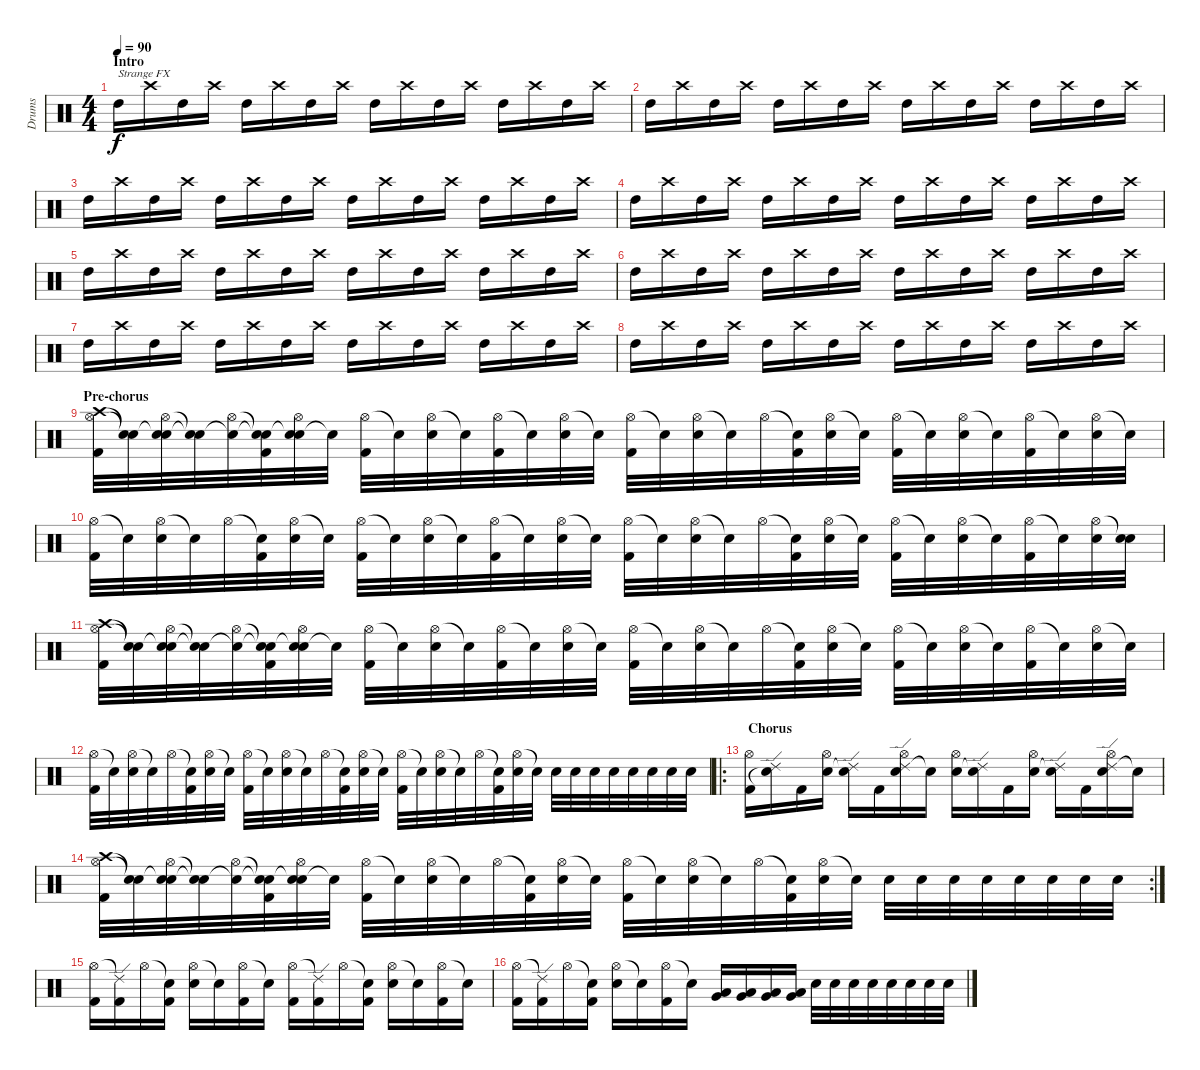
\track ("Drums" "Drums") {instrument percussion}
\staff {score}
\articulation defaults
\ts (4 4)
\section ("" "Intro")
\tempo 90
\clef neutral
\ks c "High Tom (hit)".16{txt "Strange FX" dy f} "Crash high (hit)".16 "High Tom (hit)".16 "Crash high (hit)".16 "High Tom (hit)".16 "Crash high (hit)".16 "High Tom (hit)".16 "Crash high (hit)".16 "High Tom (hit)".16 "Crash high (hit)".16 "High Tom (hit)".16 "Crash high (hit)".16 "High Tom (hit)".16 "Crash high (hit)".16 "High Tom (hit)".16 "Crash high (hit)".16
|
"High Tom (hit)".16 "Crash high (hit)".16 "High Tom (hit)".16 "Crash high (hit)".16 "High Tom (hit)".16 "Crash high (hit)".16 "High Tom (hit)".16 "Crash high (hit)".16 "High Tom (hit)".16 "Crash high (hit)".16 "High Tom (hit)".16 "Crash high (hit)".16 "High Tom (hit)".16 "Crash high (hit)".16 "High Tom (hit)".16 "Crash high (hit)".16 |
"High Tom (hit)".16 "Crash high (hit)".16 "High Tom (hit)".16 "Crash high (hit)".16 "High Tom (hit)".16 "Crash high (hit)".16 "High Tom (hit)".16 "Crash high (hit)".16 "High Tom (hit)".16 "Crash high (hit)".16 "High Tom (hit)".16 "Crash high (hit)".16 "High Tom (hit)".16 "Crash high (hit)".16 "High Tom (hit)".16 "Crash high (hit)".16 |
"High Tom (hit)".16 "Crash high (hit)".16 "High Tom (hit)".16 "Crash high (hit)".16 "High Tom (hit)".16 "Crash high (hit)".16 "High Tom (hit)".16 "Crash high (hit)".16 "High Tom (hit)".16 "Crash high (hit)".16 "High Tom (hit)".16 "Crash high (hit)".16 "High Tom (hit)".16 "Crash high (hit)".16 "High Tom (hit)".16 "Crash high (hit)".16 |
"High Tom (hit)".16 "Crash high (hit)".16 "High Tom (hit)".16 "Crash high (hit)".16 "High Tom (hit)".16 "Crash high (hit)".16 "High Tom (hit)".16 "Crash high (hit)".16 "High Tom (hit)".16 "Crash high (hit)".16 "High Tom (hit)".16 "Crash high (hit)".16 "High Tom (hit)".16 "Crash high (hit)".16 "High Tom (hit)".16 "Crash high (hit)".16 |
"High Tom (hit)".16 "Crash high (hit)".16 "High Tom (hit)".16 "Crash high (hit)".16 "High Tom (hit)".16 "Crash high (hit)".16 "High Tom (hit)".16 "Crash high (hit)".16 "High Tom (hit)".16 "Crash high (hit)".16 "High Tom (hit)".16 "Crash high (hit)".16 "High Tom (hit)".16 "Crash high (hit)".16 "High Tom (hit)".16 "Crash high (hit)".16 |
"High Tom (hit)".16 "Crash high (hit)".16 "High Tom (hit)".16 "Crash high (hit)".16 "High Tom (hit)".16 "Crash high (hit)".16 "High Tom (hit)".16 "Crash high (hit)".16 "High Tom (hit)".16 "Crash high (hit)".16 "High Tom (hit)".16 "Crash high (hit)".16 "High Tom (hit)".16 "Crash high (hit)".16 "High Tom (hit)".16 "Crash high (hit)".16 |
"High Tom (hit)".16 "Crash high (hit)".16 "High Tom (hit)".16 "Crash high (hit)".16 "High Tom (hit)".16 "Crash high (hit)".16 "High Tom (hit)".16 "Crash high (hit)".16 "High Tom (hit)".16 "Crash high (hit)".16 "High Tom (hit)".16 "Crash high (hit)".16 "High Tom (hit)".16 "Crash high (hit)".16 "High Tom (hit)".16 "Crash high (hit)".16 |
\section ("" "Pre-chorus")
("Crash high (hit)" "Hi-Hat (open)" "Kick (hit) 2").32 ("Snare (hit)"{t} "Snare (hit)"{t}).32 ("Snare (hit)"{t} "Hi-Hat (open)" "Electric Snare (hit)").32 ("Snare (hit)"{t} "Snare (hit)"{t}).32 ("Snare (hit)"{t} "Hi-Hat (open)").32 ("Snare (hit)"{t} "Snare (hit)"{t} "Kick (hit) 2").32 ("Snare (hit)"{t} "Hi-Hat (open)" "Electric Snare (hit)").32 "Snare (hit)"{t}.32 ("Hi-Hat (open)" "Kick (hit) 2").32 "Snare (hit)"{t}.32 ("Hi-Hat (open)" "Electric Snare (hit)").32 "Snare (hit)"{t}.32 ("Hi-Hat (open)" "Kick (hit) 2").32 "Snare (hit)"{t}.32 ("Hi-Hat (open)" "Electric Snare (hit)").32 "Snare (hit)"{t}.32 ("Hi-Hat (open)" "Kick (hit) 2").32 "Snare (hit)"{t}.32 ("Hi-Hat (open)" "Electric Snare (hit)").32 "Snare (hit)"{t}.32 "Hi-Hat (open)".32 ("Snare (hit)"{t} "Kick (hit) 2").32 ("Hi-Hat (open)" "Electric Snare (hit)").32 "Snare (hit)"{t}.32 ("Hi-Hat (open)" "Kick (hit) 2").32 "Snare (hit)"{t}.32 ("Hi-Hat (open)" "Electric Snare (hit)").32 "Snare (hit)"{t}.32 ("Hi-Hat (open)" "Kick (hit) 2").32 "Snare (hit)"{t}.32 ("Hi-Hat (open)" "Electric Snare (hit)").32 "Snare (hit)"{t}.32 |
("Hi-Hat (open)" "Kick (hit) 2").32 "Snare (hit)"{t}.32 ("Hi-Hat (open)" "Electric Snare (hit)").32 "Snare (hit)"{t}.32 "Hi-Hat (open)".32 ("Snare (hit)"{t} "Kick (hit) 2").32 ("Hi-Hat (open)" "Electric Snare (hit)").32 "Snare (hit)"{t}.32 ("Hi-Hat (open)" "Kick (hit) 2").32 "Snare (hit)"{t}.32 ("Hi-Hat (open)" "Electric Snare (hit)").32 "Snare (hit)"{t}.32 ("Hi-Hat (open)" "Kick (hit) 2").32 "Snare (hit)"{t}.32 ("Hi-Hat (open)" "Electric Snare (hit)").32 "Snare (hit)"{t}.32 ("Hi-Hat (open)" "Kick (hit) 2").32 "Snare (hit)"{t}.32 ("Hi-Hat (open)" "Electric Snare (hit)").32 "Snare (hit)"{t}.32 "Hi-Hat (open)".32 ("Snare (hit)"{t} "Kick (hit) 2").32 ("Hi-Hat (open)" "Electric Snare (hit)").32 "Snare (hit)"{t}.32 ("Hi-Hat (open)" "Kick (hit) 2").32 "Snare (hit)"{t}.32 ("Hi-Hat (open)" "Electric Snare (hit)").32 "Snare (hit)"{t}.32 ("Hi-Hat (open)" "Kick (hit) 2").32 "Snare (hit)"{t}.32 ("Hi-Hat (open)" "Electric Snare (hit)").32 ("Snare (hit)"{t} "Electric Snare (hit)").32 |
("Crash high (hit)" "Hi-Hat (open)" "Kick (hit) 2").32 ("Snare (hit)"{t} "Snare (hit)"{t}).32 ("Snare (hit)"{t} "Hi-Hat (open)" "Electric Snare (hit)").32 ("Snare (hit)"{t} "Snare (hit)"{t}).32 ("Snare (hit)"{t} "Hi-Hat (open)").32 ("Snare (hit)"{t} "Snare (hit)"{t} "Kick (hit) 2").32 ("Snare (hit)"{t} "Hi-Hat (open)" "Electric Snare (hit)").32 "Snare (hit)"{t}.32 ("Hi-Hat (open)" "Kick (hit) 2").32 "Snare (hit)"{t}.32 ("Hi-Hat (open)" "Electric Snare (hit)").32 "Snare (hit)"{t}.32 ("Hi-Hat (open)" "Kick (hit) 2").32 "Snare (hit)"{t}.32 ("Hi-Hat (open)" "Electric Snare (hit)").32 "Snare (hit)"{t}.32 ("Hi-Hat (open)" "Kick (hit) 2").32 "Snare (hit)"{t}.32 ("Hi-Hat (open)" "Electric Snare (hit)").32 "Snare (hit)"{t}.32 "Hi-Hat (open)".32 ("Snare (hit)"{t} "Kick (hit) 2").32 ("Hi-Hat (open)" "Electric Snare (hit)").32 "Snare (hit)"{t}.32 ("Hi-Hat (open)" "Kick (hit) 2").32 "Snare (hit)"{t}.32 ("Hi-Hat (open)" "Electric Snare (hit)").32 "Snare (hit)"{t}.32 ("Hi-Hat (open)" "Kick (hit) 2").32 "Snare (hit)"{t}.32 ("Hi-Hat (open)" "Electric Snare (hit)").32 "Snare (hit)"{t}.32 |
("Hi-Hat (open)" "Kick (hit) 2").32 "Snare (hit)"{t}.32 ("Hi-Hat (open)" "Electric Snare (hit)").32 "Snare (hit)"{t}.32 "Hi-Hat (open)".32 ("Snare (hit)"{t} "Kick (hit) 2").32 ("Hi-Hat (open)" "Electric Snare (hit)").32 "Snare (hit)"{t}.32 ("Hi-Hat (open)" "Kick (hit) 2").32 "Snare (hit)"{t}.32 ("Hi-Hat (open)" "Electric Snare (hit)").32 "Snare (hit)"{t}.32 "Hi-Hat (open)".32 ("Snare (hit)"{t} "Kick (hit) 2").32 ("Hi-Hat (open)" "Electric Snare (hit)").32 "Snare (hit)"{t}.32 ("Hi-Hat (open)" "Kick (hit) 2").32 "Snare (hit)"{t}.32 ("Hi-Hat (open)" "Electric Snare (hit)").32 "Snare (hit)"{t}.32 "Hi-Hat (open)".32 ("Snare (hit)"{t} "Kick (hit) 2").32 ("Hi-Hat (open)" "Electric Snare (hit)").32 "Snare (hit)"{t}.32 "Electric Snare (hit)".32 "Electric Snare (hit)".32 "Electric Snare (hit)".32 "Electric Snare (hit)".32 "Electric Snare (hit)".32 "Electric Snare (hit)".32 "Electric Snare (hit)".32 "Electric Snare (hit)".32 |
\ro
\section ("" " Chorus")
("Hi-Hat (open)" "Kick (hit) 2").16 ("Ride (edge) 2" "Snare (hit)"{t}).16 "Kick (hit) 2".16 ("Hi-Hat (open)" "Electric Snare (hit)").16 ("Ride (edge) 2" "Snare (hit)"{t}).16 "Kick (hit) 2".16 ("Ride (edge) 2" "Hi-Hat (open)" "Electric Snare (hit)").16 "Snare (hit)"{t}.16 ("Hi-Hat (open)" "Electric Snare (hit)").16 ("Ride (edge) 2" "Snare (hit)"{t}).16 "Kick (hit) 2".16 ("Hi-Hat (open)" "Electric Snare (hit)").16 ("Ride (edge) 2" "Snare (hit)"{t}).16 "Kick (hit) 2".16 ("Ride (edge) 2" "Hi-Hat (open)" "Electric Snare (hit)").16 "Snare (hit)"{t}.16 |
\rc 2
("Crash high (hit)" "Hi-Hat (open)" "Kick (hit) 2").32 ("Snare (hit)"{t} "Snare (hit)"{t}).32 ("Snare (hit)"{t} "Hi-Hat (open)" "Electric Snare (hit)").32 ("Snare (hit)"{t} "Snare (hit)"{t}).32 ("Snare (hit)"{t} "Hi-Hat (open)").32 ("Snare (hit)"{t} "Snare (hit)"{t} "Kick (hit) 2").32 ("Snare (hit)"{t} "Hi-Hat (open)" "Electric Snare (hit)").32 "Snare (hit)"{t}.32 ("Hi-Hat (open)" "Kick (hit) 2").32 "Snare (hit)"{t}.32 ("Hi-Hat (open)" "Electric Snare (hit)").32 "Snare (hit)"{t}.32 "Hi-Hat (open)".32 ("Snare (hit)"{t} "Kick (hit) 2").32 ("Hi-Hat (open)" "Electric Snare (hit)").32 "Snare (hit)"{t}.32 ("Hi-Hat (open)" "Kick (hit) 2").32 "Snare (hit)"{t}.32 ("Hi-Hat (open)" "Electric Snare (hit)").32 "Snare (hit)"{t}.32 "Hi-Hat (open)".32 ("Snare (hit)"{t} "Kick (hit) 2").32 ("Hi-Hat (open)" "Electric Snare (hit)").32 "Snare (hit)"{t}.32 "Electric Snare (hit)".32 "Electric Snare (hit)".32 "Electric Snare (hit)".32 "Electric Snare (hit)".32 "Electric Snare (hit)".32 "Electric Snare (hit)".32 "Electric Snare (hit)".32 "Electric Snare (hit)".32 |
("Hi-Hat (open)" "Kick (hit) 2").16 ("Ride (edge) 2"{t} "Kick (hit) 2").16 "Hi-Hat (open)".16 ("Snare (hit)"{t} "Kick (hit) 2").16 ("Hi-Hat (open)" "Electric Snare (hit)").16 "Snare (hit)"{t}.16 ("Hi-Hat (open)" "Kick (hit) 2").16 "Snare (hit)"{t}.16 ("Hi-Hat (open)" "Kick (hit) 2").16 ("Ride (edge) 2"{t} "Kick (hit) 2").16 "Hi-Hat (open)".16 ("Snare (hit)"{t} "Kick (hit) 2").16 ("Hi-Hat (open)" "Electric Snare (hit)").16 "Snare (hit)"{t}.16 ("Hi-Hat (open)" "Kick (hit) 2").16 "Snare (hit)"{t}.16 |
("Hi-Hat (open)" "Kick (hit) 2").16 ("Ride (edge) 2"{t} "Kick (hit) 2").16 "Hi-Hat (open)".16 ("Snare (hit)"{t} "Kick (hit) 2").16 ("Hi-Hat (open)" "Electric Snare (hit)").16 "Snare (hit)"{t}.16 ("Hi-Hat (open)" "Kick (hit) 2").16 "Snare (hit)"{t}.16 ("Very Low Tom (hit)" "Low Floor Tom (hit)").16 ("Very Low Tom (hit)" "Low Floor Tom (hit)").16 ("Very Low Tom (hit)" "Low Floor Tom (hit)").16 ("Very Low Tom (hit)" "Low Floor Tom (hit)").16 "Electric Snare (hit)".32 "Electric Snare (hit)".32 "Electric Snare (hit)".32 "Electric Snare (hit)".32 "Electric Snare (hit)".32 "Electric Snare (hit)".32 "Electric Snare (hit)".32 "Electric Snare (hit)".32
